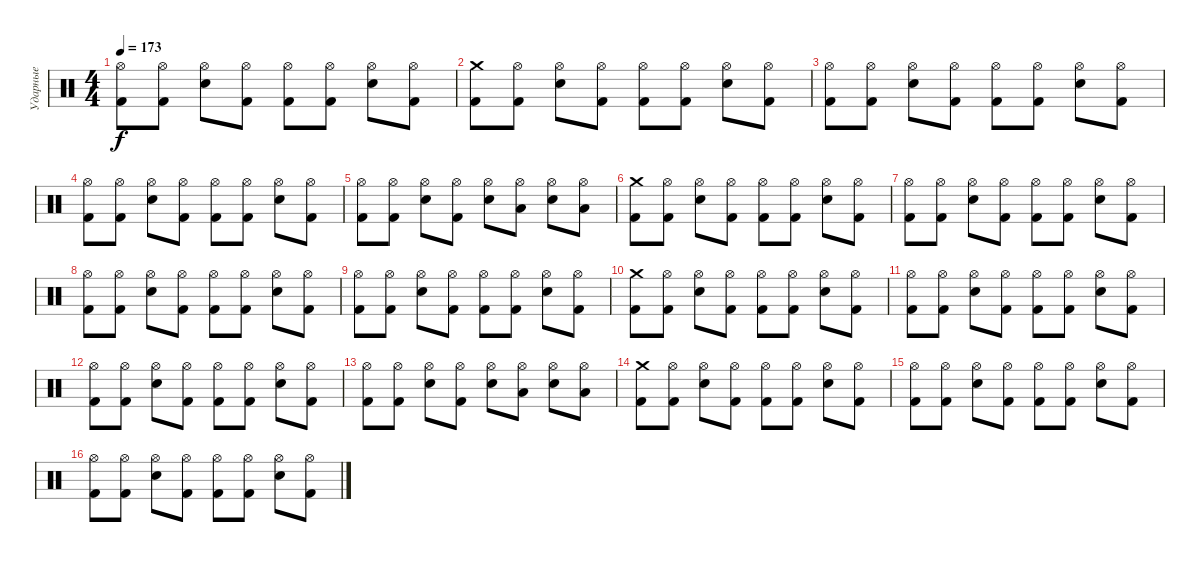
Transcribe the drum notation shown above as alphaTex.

\track ("Ударные" "Ударные") {instrument percussion}
\staff {score}
\articulation defaults
\ts (4 4)
\tempo 173
\clef neutral
\ks c
("Hi-Hat (open)" "Kick (hit) 2").8{dy f} ("Hi-Hat (open)" "Kick (hit) 2").8 ("Hi-Hat (open)" "Electric Snare (hit)").8 ("Hi-Hat (open)" "Kick (hit) 2").8 ("Hi-Hat (open)" "Kick (hit) 2").8 ("Hi-Hat (open)" "Kick (hit) 2").8 ("Hi-Hat (open)" "Electric Snare (hit)").8 ("Hi-Hat (open)" "Kick (hit) 2").8 |
("Crash medium (hit)" "Kick (hit) 2").8 ("Hi-Hat (open)" "Kick (hit) 2").8 ("Hi-Hat (open)" "Electric Snare (hit)").8 ("Hi-Hat (open)" "Kick (hit) 2").8 ("Hi-Hat (open)" "Kick (hit) 2").8 ("Hi-Hat (open)" "Kick (hit) 2").8 ("Hi-Hat (open)" "Electric Snare (hit)").8 ("Hi-Hat (open)" "Kick (hit) 2").8 |
("Hi-Hat (open)" "Kick (hit) 2").8 ("Hi-Hat (open)" "Kick (hit) 2").8 ("Hi-Hat (open)" "Electric Snare (hit)").8 ("Hi-Hat (open)" "Kick (hit) 2").8 ("Hi-Hat (open)" "Kick (hit) 2").8 ("Hi-Hat (open)" "Kick (hit) 2").8 ("Hi-Hat (open)" "Electric Snare (hit)").8 ("Hi-Hat (open)" "Kick (hit) 2").8 |
("Hi-Hat (open)" "Kick (hit) 2").8 ("Hi-Hat (open)" "Kick (hit) 2").8 ("Hi-Hat (open)" "Electric Snare (hit)").8 ("Hi-Hat (open)" "Kick (hit) 2").8 ("Hi-Hat (open)" "Kick (hit) 2").8 ("Hi-Hat (open)" "Kick (hit) 2").8 ("Hi-Hat (open)" "Electric Snare (hit)").8 ("Hi-Hat (open)" "Kick (hit) 2").8 |
("Hi-Hat (open)" "Kick (hit) 2").8 ("Hi-Hat (open)" "Kick (hit) 2").8 ("Hi-Hat (open)" "Electric Snare (hit)").8 ("Hi-Hat (open)" "Kick (hit) 2").8 ("Hi-Hat (open)" "Electric Snare (hit)").8 ("Hi-Hat (open)" "Low Tom (hit)").8 ("Hi-Hat (open)" "Electric Snare (hit)").8 ("Hi-Hat (open)" "Low Tom (hit)").8 |
("Crash medium (hit)" "Kick (hit) 2").8 ("Hi-Hat (open)" "Kick (hit) 2").8 ("Hi-Hat (open)" "Electric Snare (hit)").8 ("Hi-Hat (open)" "Kick (hit) 2").8 ("Hi-Hat (open)" "Kick (hit) 2").8 ("Hi-Hat (open)" "Kick (hit) 2").8 ("Hi-Hat (open)" "Electric Snare (hit)").8 ("Hi-Hat (open)" "Kick (hit) 2").8 |
("Hi-Hat (open)" "Kick (hit) 2").8 ("Hi-Hat (open)" "Kick (hit) 2").8 ("Hi-Hat (open)" "Electric Snare (hit)").8 ("Hi-Hat (open)" "Kick (hit) 2").8 ("Hi-Hat (open)" "Kick (hit) 2").8 ("Hi-Hat (open)" "Kick (hit) 2").8 ("Hi-Hat (open)" "Electric Snare (hit)").8 ("Hi-Hat (open)" "Kick (hit) 2").8 |
("Hi-Hat (open)" "Kick (hit) 2").8 ("Hi-Hat (open)" "Kick (hit) 2").8 ("Hi-Hat (open)" "Electric Snare (hit)").8 ("Hi-Hat (open)" "Kick (hit) 2").8 ("Hi-Hat (open)" "Kick (hit) 2").8 ("Hi-Hat (open)" "Kick (hit) 2").8 ("Hi-Hat (open)" "Electric Snare (hit)").8 ("Hi-Hat (open)" "Kick (hit) 2").8 |
("Hi-Hat (open)" "Kick (hit) 2").8 ("Hi-Hat (open)" "Kick (hit) 2").8 ("Hi-Hat (open)" "Electric Snare (hit)").8 ("Hi-Hat (open)" "Kick (hit) 2").8 ("Hi-Hat (open)" "Kick (hit) 2").8 ("Hi-Hat (open)" "Kick (hit) 2").8 ("Hi-Hat (open)" "Electric Snare (hit)").8 ("Hi-Hat (open)" "Kick (hit) 2").8 |
("Crash medium (hit)" "Kick (hit) 2").8 ("Hi-Hat (open)" "Kick (hit) 2").8 ("Hi-Hat (open)" "Electric Snare (hit)").8 ("Hi-Hat (open)" "Kick (hit) 2").8 ("Hi-Hat (open)" "Kick (hit) 2").8 ("Hi-Hat (open)" "Kick (hit) 2").8 ("Hi-Hat (open)" "Electric Snare (hit)").8 ("Hi-Hat (open)" "Kick (hit) 2").8 |
("Hi-Hat (open)" "Kick (hit) 2").8 ("Hi-Hat (open)" "Kick (hit) 2").8 ("Hi-Hat (open)" "Electric Snare (hit)").8 ("Hi-Hat (open)" "Kick (hit) 2").8 ("Hi-Hat (open)" "Kick (hit) 2").8 ("Hi-Hat (open)" "Kick (hit) 2").8 ("Hi-Hat (open)" "Electric Snare (hit)").8 ("Hi-Hat (open)" "Kick (hit) 2").8 |
("Hi-Hat (open)" "Kick (hit) 2").8 ("Hi-Hat (open)" "Kick (hit) 2").8 ("Hi-Hat (open)" "Electric Snare (hit)").8 ("Hi-Hat (open)" "Kick (hit) 2").8 ("Hi-Hat (open)" "Kick (hit) 2").8 ("Hi-Hat (open)" "Kick (hit) 2").8 ("Hi-Hat (open)" "Electric Snare (hit)").8 ("Hi-Hat (open)" "Kick (hit) 2").8 |
("Hi-Hat (open)" "Kick (hit) 2").8 ("Hi-Hat (open)" "Kick (hit) 2").8 ("Hi-Hat (open)" "Electric Snare (hit)").8 ("Hi-Hat (open)" "Kick (hit) 2").8 ("Hi-Hat (open)" "Electric Snare (hit)").8 ("Hi-Hat (open)" "Low Tom (hit)").8 ("Hi-Hat (open)" "Electric Snare (hit)").8 ("Hi-Hat (open)" "Low Tom (hit)").8 |
("Crash medium (hit)" "Kick (hit) 2").8 ("Hi-Hat (open)" "Kick (hit) 2").8 ("Hi-Hat (open)" "Electric Snare (hit)").8 ("Hi-Hat (open)" "Kick (hit) 2").8 ("Hi-Hat (open)" "Kick (hit) 2").8 ("Hi-Hat (open)" "Kick (hit) 2").8 ("Hi-Hat (open)" "Electric Snare (hit)").8 ("Hi-Hat (open)" "Kick (hit) 2").8 |
("Hi-Hat (open)" "Kick (hit) 2").8 ("Hi-Hat (open)" "Kick (hit) 2").8 ("Hi-Hat (open)" "Electric Snare (hit)").8 ("Hi-Hat (open)" "Kick (hit) 2").8 ("Hi-Hat (open)" "Kick (hit) 2").8 ("Hi-Hat (open)" "Kick (hit) 2").8 ("Hi-Hat (open)" "Electric Snare (hit)").8 ("Hi-Hat (open)" "Kick (hit) 2").8 |
("Hi-Hat (open)" "Kick (hit) 2").8 ("Hi-Hat (open)" "Kick (hit) 2").8 ("Hi-Hat (open)" "Electric Snare (hit)").8 ("Hi-Hat (open)" "Kick (hit) 2").8 ("Hi-Hat (open)" "Kick (hit) 2").8 ("Hi-Hat (open)" "Kick (hit) 2").8 ("Hi-Hat (open)" "Electric Snare (hit)").8 ("Hi-Hat (open)" "Kick (hit) 2").8
